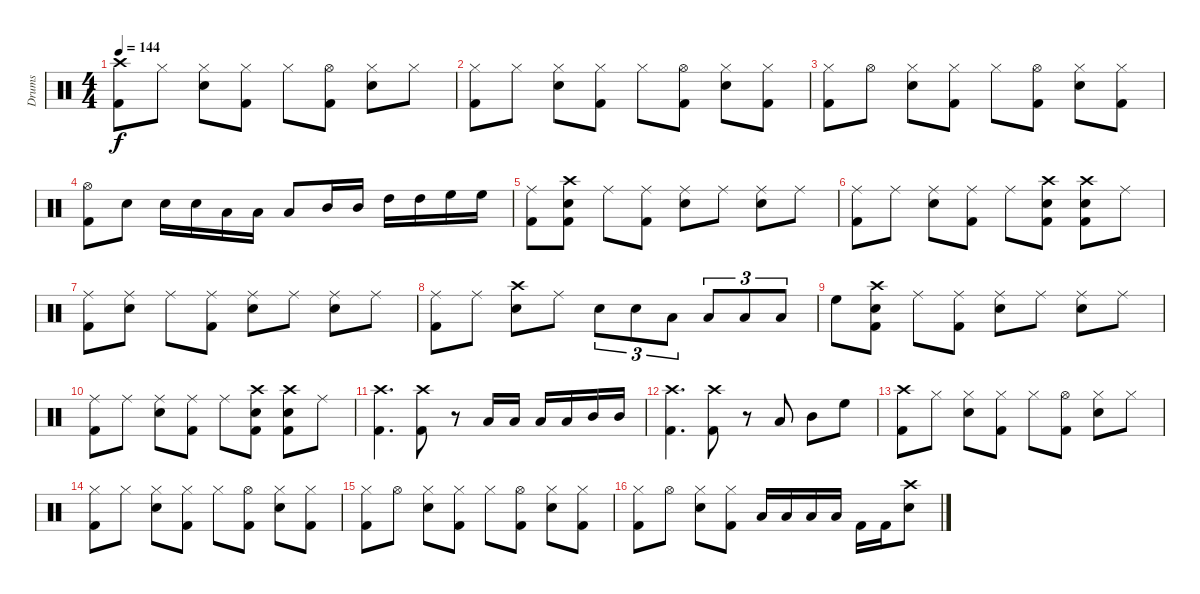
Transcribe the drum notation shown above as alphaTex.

\track ("Drums" "Drums") {instrument percussion}
\staff {score}
\articulation defaults
\ts (4 4)
\tempo 144
\clef neutral
\ks c
("Crash high (hit)" "Kick (hit) 2").8{dy f} "Hi-Hat (closed)".8 ("Hi-Hat (closed)" "Snare (hit) 2").8 ("Hi-Hat (closed)" "Kick (hit) 2").8 "Hi-Hat (closed)".8 ("Hi-Hat (open)" "Kick (hit) 2").8 ("Hi-Hat (closed)" "Snare (hit) 2").8 "Hi-Hat (closed)".8 |
("Hi-Hat (closed)" "Kick (hit) 2").8 "Hi-Hat (closed)".8 ("Hi-Hat (closed)" "Snare (hit) 2").8 ("Hi-Hat (closed)" "Kick (hit) 2").8 "Hi-Hat (closed)".8 ("Hi-Hat (open)" "Kick (hit) 2").8 ("Hi-Hat (closed)" "Snare (hit) 2").8 ("Hi-Hat (closed)" "Kick (hit) 2").8 |
("Hi-Hat (closed)" "Kick (hit) 2").8 "Hi-Hat (open)".8 ("Hi-Hat (closed)" "Snare (hit) 2").8 ("Hi-Hat (closed)" "Kick (hit) 2").8 "Hi-Hat (closed)".8 ("Hi-Hat (open)" "Kick (hit) 2").8 ("Hi-Hat (closed)" "Snare (hit) 2").8 ("Hi-Hat (closed)" "Kick (hit) 2").8 |
("Hi-Hat (open)" "Kick (hit) 2").8 "Snare (hit) 2".8 "Snare (hit) 2".16 "Snare (hit) 2".16 "Low Floor Tom (hit)".16 "Low Floor Tom (hit)".16 "Low Tom (hit)".8 "Mid Tom (hit)".16 "Mid Tom (hit)".16 "High Tom (hit)".16 "High Tom (hit)".16 "High Floor Tom (hit)".16 "High Floor Tom (hit)".16 |
("Ride (middle)" "Kick (hit) 2").8 ("Crash high (hit)" "Snare (hit) 2" "Kick (hit) 2").8 "Ride (middle)".8 ("Ride (middle)" "Kick (hit) 2").8 ("Ride (middle)" "Snare (hit) 2").8 "Ride (middle)".8 ("Ride (middle)" "Snare (hit) 2").8 "Ride (middle)".8 |
("Ride (middle)" "Kick (hit) 2").8 "Ride (middle)".8 ("Ride (middle)" "Snare (hit) 2").8 ("Ride (middle)" "Kick (hit) 2").8 "Ride (middle)".8 ("Crash high (hit)" "Snare (hit) 2" "Kick (hit) 2").8 ("Crash high (hit)" "Snare (hit) 2" "Kick (hit) 2").8 "Ride (middle)".8 |
("Ride (middle)" "Kick (hit) 2").8 ("Ride (middle)" "Snare (hit) 2").8 "Ride (middle)".8 ("Ride (middle)" "Kick (hit) 2").8 ("Ride (middle)" "Snare (hit) 2").8 "Ride (middle)".8 ("Ride (middle)" "Snare (hit) 2").8 "Ride (middle)".8 |
("Ride (middle)" "Kick (hit) 2").8 "Ride (middle)".8 ("Crash high (hit)" "Snare (hit) 2").8 "Ride (middle)".8 "Snare (hit) 2".8{tu (3 2)} "Snare (hit) 2".8{tu (3 2)} "Low Floor Tom (hit)".8{tu (3 2)} "Low Floor Tom (hit)".8{tu (3 2)} "Low Tom (hit)".8{tu (3 2)} "Low Tom (hit)".8{tu (3 2)} |
"High Floor Tom (hit)".8 ("Crash high (hit)" "Snare (hit) 2" "Kick (hit) 2").8 "Ride (middle)".8 ("Ride (middle)" "Kick (hit) 2").8 ("Ride (middle)" "Snare (hit) 2").8 "Ride (middle)".8 ("Ride (middle)" "Snare (hit) 2").8 "Ride (middle)".8 |
("Ride (middle)" "Kick (hit) 2").8 "Ride (middle)".8 ("Ride (middle)" "Snare (hit) 2").8 ("Ride (middle)" "Kick (hit) 2").8 "Ride (middle)".8 ("Crash high (hit)" "Snare (hit) 2" "Kick (hit) 2").8 ("Crash high (hit)" "Snare (hit) 2" "Kick (hit) 2").8 "Ride (middle)".8 |
("Crash high (hit)" "Kick (hit) 2").4{d} ("Crash high (hit)" "Kick (hit) 2").8 r.8 "Low Floor Tom (hit)".16 "Low Floor Tom (hit)".16 "Low Tom (hit)".16 "Low Tom (hit)".16 "Mid Tom (hit)".16 "Mid Tom (hit)".16 |
("Crash high (hit)" "Kick (hit) 2").4{d} ("Crash high (hit)" "Kick (hit) 2").8 r.8 "Low Tom (hit)".8 "Mid Tom (hit)".8 "High Floor Tom (hit)".8 |
("Crash high (hit)" "Kick (hit) 2").8 "Hi-Hat (closed)".8 ("Hi-Hat (closed)" "Snare (hit) 2").8 ("Hi-Hat (closed)" "Kick (hit) 2").8 "Hi-Hat (closed)".8 ("Hi-Hat (open)" "Kick (hit) 2").8 ("Hi-Hat (closed)" "Snare (hit) 2").8 "Hi-Hat (closed)".8 |
("Hi-Hat (closed)" "Kick (hit) 2").8 "Hi-Hat (closed)".8 ("Hi-Hat (closed)" "Snare (hit) 2").8 ("Hi-Hat (closed)" "Kick (hit) 2").8 "Hi-Hat (closed)".8 ("Hi-Hat (open)" "Kick (hit) 2").8 ("Hi-Hat (closed)" "Snare (hit) 2").8 ("Hi-Hat (closed)" "Kick (hit) 2").8 |
("Hi-Hat (closed)" "Kick (hit) 2").8 "Hi-Hat (open)".8 ("Hi-Hat (closed)" "Snare (hit) 2").8 ("Hi-Hat (closed)" "Kick (hit) 2").8 "Hi-Hat (closed)".8 ("Hi-Hat (open)" "Kick (hit) 2").8 ("Hi-Hat (closed)" "Snare (hit) 2").8 ("Hi-Hat (closed)" "Kick (hit) 2").8 |
("Hi-Hat (closed)" "Kick (hit) 2").8 "Hi-Hat (open)".8 ("Hi-Hat (closed)" "Snare (hit) 2").8 ("Hi-Hat (closed)" "Kick (hit) 2").8 "Low Tom (hit)".16 "Low Floor Tom (hit)".16 "Low Tom (hit)".16 "Low Floor Tom (hit)".16 "Kick (hit) 2".16 "Kick (hit) 2".16 ("Crash high (hit)" "Snare (hit) 2").8
